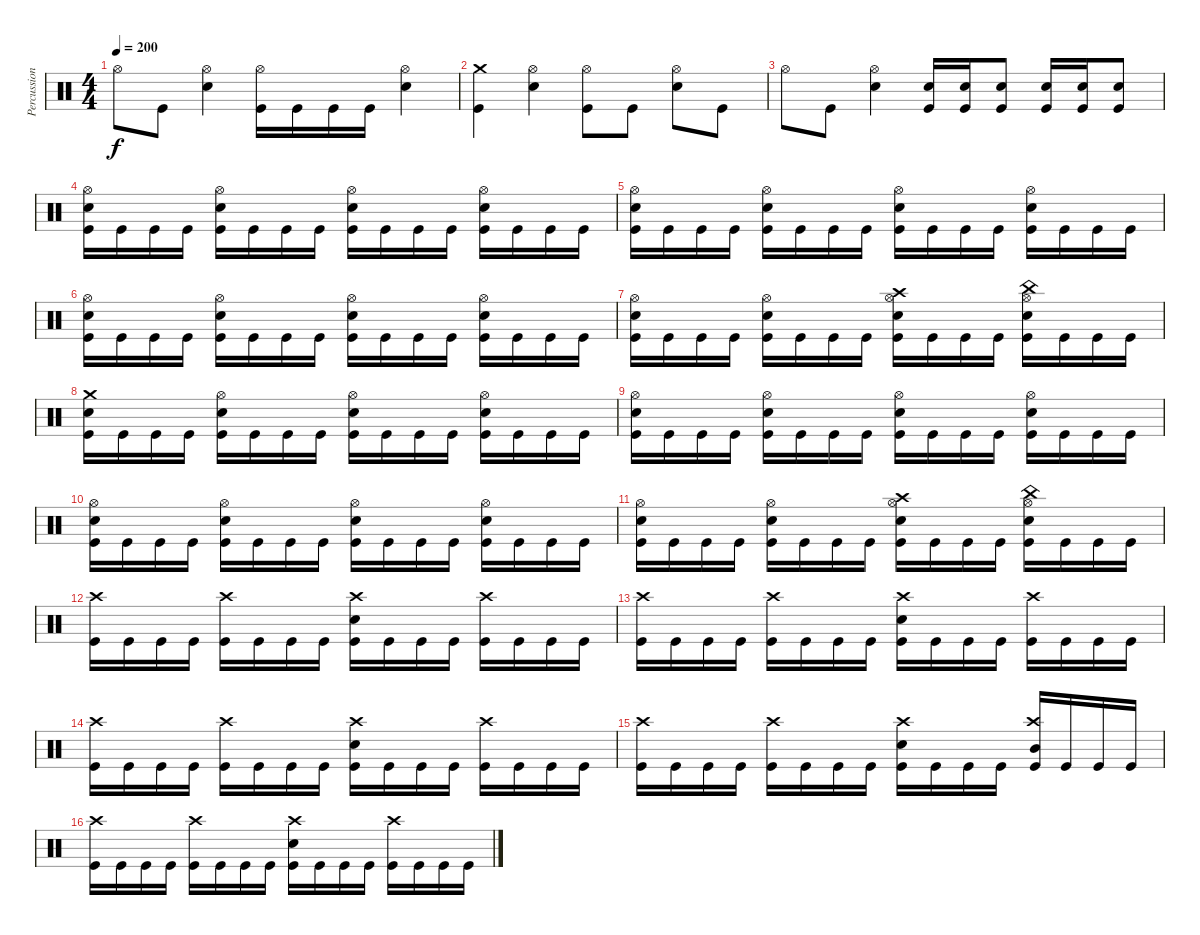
\track ("Percussion" "Percussion") {instrument percussion}
\staff {score}
\articulation defaults
\ts (4 4)
\tempo 200
\clef neutral
\ks c "Hi-Hat (open)".8{dy f} "Kick (hit)".8
("Hi-Hat (open)" "Electric Snare (hit)").4 ("Hi-Hat (open)" "Kick (hit)").16 "Kick (hit)".16 "Kick (hit)".16 "Kick (hit)".16 ("Hi-Hat (open)" "Electric Snare (hit)").4 |
("Crash medium (hit)" "Kick (hit)").4 ("Hi-Hat (open)" "Electric Snare (hit)").4 ("Hi-Hat (open)" "Kick (hit)").8 "Kick (hit)".8 ("Hi-Hat (open)" "Electric Snare (hit)").8 "Kick (hit)".8 |
"Hi-Hat (open)".8 "Kick (hit)".8 ("Hi-Hat (open)" "Electric Snare (hit)").4 ("Electric Snare (hit)" "Kick (hit)").16 ("Electric Snare (hit)" "Kick (hit)").16 ("Electric Snare (hit)" "Kick (hit)").8 ("Electric Snare (hit)" "Kick (hit)").16 ("Electric Snare (hit)" "Kick (hit)").16 ("Electric Snare (hit)" "Kick (hit)").8 |
("Hi-Hat (open)" "Electric Snare (hit)" "Kick (hit)").16 "Kick (hit)".16 "Kick (hit)".16 "Kick (hit)".16 ("Hi-Hat (open)" "Electric Snare (hit)" "Kick (hit)").16 "Kick (hit)".16 "Kick (hit)".16 "Kick (hit)".16 ("Hi-Hat (open)" "Electric Snare (hit)" "Kick (hit)").16 "Kick (hit)".16 "Kick (hit)".16 "Kick (hit)".16 ("Hi-Hat (open)" "Electric Snare (hit)" "Kick (hit)").16 "Kick (hit)".16 "Kick (hit)".16 "Kick (hit)".16 |
("Hi-Hat (open)" "Electric Snare (hit)" "Kick (hit)").16 "Kick (hit)".16 "Kick (hit)".16 "Kick (hit)".16 ("Hi-Hat (open)" "Electric Snare (hit)" "Kick (hit)").16 "Kick (hit)".16 "Kick (hit)".16 "Kick (hit)".16 ("Hi-Hat (open)" "Electric Snare (hit)" "Kick (hit)").16 "Kick (hit)".16 "Kick (hit)".16 "Kick (hit)".16 ("Hi-Hat (open)" "Electric Snare (hit)" "Kick (hit)").16 "Kick (hit)".16 "Kick (hit)".16 "Kick (hit)".16 |
("Hi-Hat (open)" "Electric Snare (hit)" "Kick (hit)").16 "Kick (hit)".16 "Kick (hit)".16 "Kick (hit)".16 ("Hi-Hat (open)" "Electric Snare (hit)" "Kick (hit)").16 "Kick (hit)".16 "Kick (hit)".16 "Kick (hit)".16 ("Hi-Hat (open)" "Electric Snare (hit)" "Kick (hit)").16 "Kick (hit)".16 "Kick (hit)".16 "Kick (hit)".16 ("Hi-Hat (open)" "Electric Snare (hit)" "Kick (hit)").16 "Kick (hit)".16 "Kick (hit)".16 "Kick (hit)".16 |
("Hi-Hat (open)" "Electric Snare (hit)" "Kick (hit)").16 "Kick (hit)".16 "Kick (hit)".16 "Kick (hit)".16 ("Hi-Hat (open)" "Electric Snare (hit)" "Kick (hit)").16 "Kick (hit)".16 "Kick (hit)".16 "Kick (hit)".16 ("Crash high (hit)" "Hi-Hat (open)" "Electric Snare (hit)" "Kick (hit)").16 "Kick (hit)".16 "Kick (hit)".16 "Kick (hit)".16 ("China (hit)" "Hi-Hat (open)" "Electric Snare (hit)" "Kick (hit)").16 "Kick (hit)".16 "Kick (hit)".16 "Kick (hit)".16 |
("Crash medium (hit)" "Electric Snare (hit)" "Kick (hit)").16 "Kick (hit)".16 "Kick (hit)".16 "Kick (hit)".16 ("Hi-Hat (open)" "Electric Snare (hit)" "Kick (hit)").16 "Kick (hit)".16 "Kick (hit)".16 "Kick (hit)".16 ("Hi-Hat (open)" "Electric Snare (hit)" "Kick (hit)").16 "Kick (hit)".16 "Kick (hit)".16 "Kick (hit)".16 ("Hi-Hat (open)" "Electric Snare (hit)" "Kick (hit)").16 "Kick (hit)".16 "Kick (hit)".16 "Kick (hit)".16 |
("Hi-Hat (open)" "Electric Snare (hit)" "Kick (hit)").16 "Kick (hit)".16 "Kick (hit)".16 "Kick (hit)".16 ("Hi-Hat (open)" "Electric Snare (hit)" "Kick (hit)").16 "Kick (hit)".16 "Kick (hit)".16 "Kick (hit)".16 ("Hi-Hat (open)" "Electric Snare (hit)" "Kick (hit)").16 "Kick (hit)".16 "Kick (hit)".16 "Kick (hit)".16 ("Hi-Hat (open)" "Electric Snare (hit)" "Kick (hit)").16 "Kick (hit)".16 "Kick (hit)".16 "Kick (hit)".16 |
("Hi-Hat (open)" "Electric Snare (hit)" "Kick (hit)").16 "Kick (hit)".16 "Kick (hit)".16 "Kick (hit)".16 ("Hi-Hat (open)" "Electric Snare (hit)" "Kick (hit)").16 "Kick (hit)".16 "Kick (hit)".16 "Kick (hit)".16 ("Hi-Hat (open)" "Electric Snare (hit)" "Kick (hit)").16 "Kick (hit)".16 "Kick (hit)".16 "Kick (hit)".16 ("Hi-Hat (open)" "Electric Snare (hit)" "Kick (hit)").16 "Kick (hit)".16 "Kick (hit)".16 "Kick (hit)".16 |
("Hi-Hat (open)" "Electric Snare (hit)" "Kick (hit)").16 "Kick (hit)".16 "Kick (hit)".16 "Kick (hit)".16 ("Hi-Hat (open)" "Electric Snare (hit)" "Kick (hit)").16 "Kick (hit)".16 "Kick (hit)".16 "Kick (hit)".16 ("Crash high (hit)" "Hi-Hat (open)" "Electric Snare (hit)" "Kick (hit)").16 "Kick (hit)".16 "Kick (hit)".16 "Kick (hit)".16 ("China (hit)" "Hi-Hat (open)" "Electric Snare (hit)" "Kick (hit)").16 "Kick (hit)".16 "Kick (hit)".16 "Kick (hit)".16 |
("Crash high (hit)" "Kick (hit)").16 "Kick (hit)".16 "Kick (hit)".16 "Kick (hit)".16 ("Crash high (hit)" "Kick (hit)").16 "Kick (hit)".16 "Kick (hit)".16 "Kick (hit)".16 ("Crash high (hit)" "Electric Snare (hit)" "Kick (hit)").16 "Kick (hit)".16 "Kick (hit)".16 "Kick (hit)".16 ("Crash high (hit)" "Kick (hit)").16 "Kick (hit)".16 "Kick (hit)".16 "Kick (hit)".16 |
("Crash high (hit)" "Kick (hit)").16 "Kick (hit)".16 "Kick (hit)".16 "Kick (hit)".16 ("Crash high (hit)" "Kick (hit)").16 "Kick (hit)".16 "Kick (hit)".16 "Kick (hit)".16 ("Crash high (hit)" "Electric Snare (hit)" "Kick (hit)").16 "Kick (hit)".16 "Kick (hit)".16 "Kick (hit)".16 ("Crash high (hit)" "Kick (hit)").16 "Kick (hit)".16 "Kick (hit)".16 "Kick (hit)".16 |
("Crash high (hit)" "Kick (hit)").16 "Kick (hit)".16 "Kick (hit)".16 "Kick (hit)".16 ("Crash high (hit)" "Kick (hit)").16 "Kick (hit)".16 "Kick (hit)".16 "Kick (hit)".16 ("Crash high (hit)" "Electric Snare (hit)" "Kick (hit)").16 "Kick (hit)".16 "Kick (hit)".16 "Kick (hit)".16 ("Crash high (hit)" "Kick (hit)").16 "Kick (hit)".16 "Kick (hit)".16 "Kick (hit)".16 |
("Crash high (hit)" "Kick (hit)").16 "Kick (hit)".16 "Kick (hit)".16 "Kick (hit)".16 ("Crash high (hit)" "Kick (hit)").16 "Kick (hit)".16 "Kick (hit)".16 "Kick (hit)".16 ("Crash high (hit)" "Electric Snare (hit)" "Kick (hit)").16 "Kick (hit)".16 "Kick (hit)".16 "Kick (hit)".16 ("Crash high (hit)" "Mid Tom (hit)" "Kick (hit)").16 "Kick (hit)".16 "Kick (hit)".16 "Kick (hit)".16 |
("Crash high (hit)" "Kick (hit)").16 "Kick (hit)".16 "Kick (hit)".16 "Kick (hit)".16 ("Crash high (hit)" "Kick (hit)").16 "Kick (hit)".16 "Kick (hit)".16 "Kick (hit)".16 ("Crash high (hit)" "Electric Snare (hit)" "Kick (hit)").16 "Kick (hit)".16 "Kick (hit)".16 "Kick (hit)".16 ("Crash high (hit)" "Kick (hit)").16 "Kick (hit)".16 "Kick (hit)".16 "Kick (hit)".16
